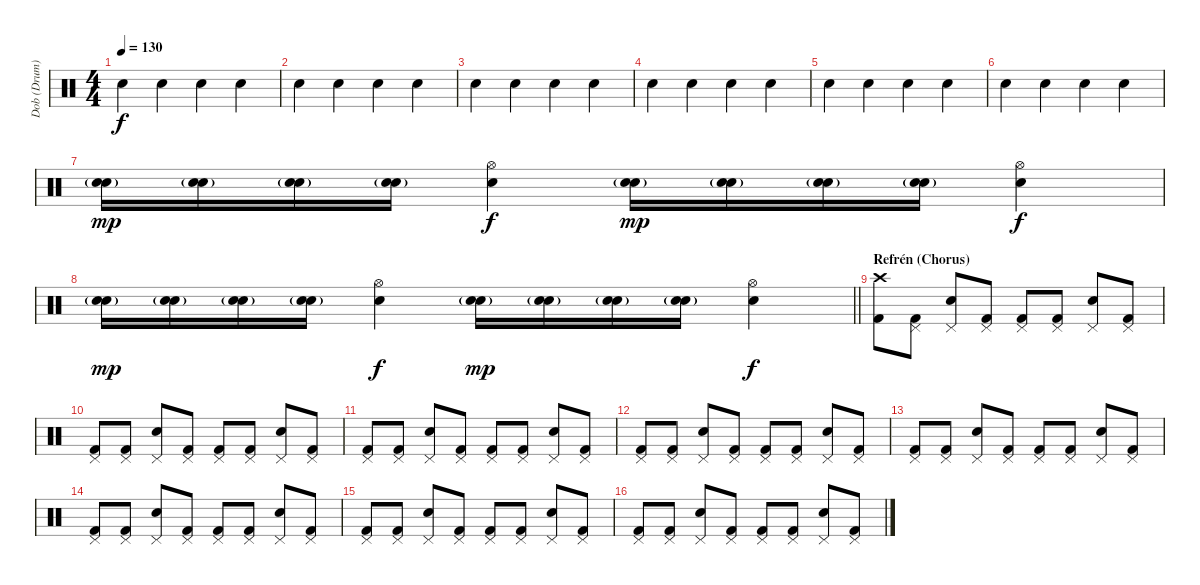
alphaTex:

\track ("Dob (Drum)" "Dob (Drum)") {instrument percussion}
\staff {score}
\articulation defaults
\ts (4 4)
\tempo 130
\clef neutral
\ks c "Snare (hit) 2".4{dy f} "Electric Snare (hit)".4 "Snare (hit) 2".4 "Electric Snare (hit)".4
|
"Snare (hit) 2".4 "Electric Snare (hit)".4 "Snare (hit) 2".4 "Electric Snare (hit)".4 |
"Snare (hit) 2".4 "Electric Snare (hit)".4 "Snare (hit) 2".4 "Electric Snare (hit)".4 |
"Snare (hit) 2".4 "Electric Snare (hit)".4 "Snare (hit) 2".4 "Electric Snare (hit)".4 |
"Snare (hit) 2".4 "Electric Snare (hit)".4 "Snare (hit) 2".4 "Electric Snare (hit)".4 |
"Snare (hit) 2".4 "Electric Snare (hit)".4 "Snare (hit) 2".4 "Electric Snare (hit)".4 |
("Electric Snare (hit)"{g} "Snare (hit) 2").16{dy mp} ("Electric Snare (hit)"{g} "Snare (hit) 2").16 ("Electric Snare (hit)"{g} "Snare (hit) 2").16 ("Electric Snare (hit)"{g} "Snare (hit) 2").16 ("Hi-Hat (open)" "Electric Snare (hit)").4{dy f} ("Electric Snare (hit)"{g} "Snare (hit) 2").16{dy mp} ("Electric Snare (hit)"{g} "Snare (hit) 2").16 ("Electric Snare (hit)"{g} "Snare (hit) 2").16 ("Electric Snare (hit)"{g} "Snare (hit) 2").16 ("Hi-Hat (open)" "Electric Snare (hit)").4{dy f} |
\barLineRight lightlight
("Electric Snare (hit)"{g} "Snare (hit) 2").16{dy mp} ("Electric Snare (hit)"{g} "Snare (hit) 2").16 ("Electric Snare (hit)"{g} "Snare (hit) 2").16 ("Electric Snare (hit)"{g} "Snare (hit) 2").16 ("Hi-Hat (open)" "Electric Snare (hit)").4{dy f} ("Electric Snare (hit)"{g} "Snare (hit) 2").16{dy mp} ("Electric Snare (hit)"{g} "Snare (hit) 2").16 ("Electric Snare (hit)"{g} "Snare (hit) 2").16 ("Electric Snare (hit)"{g} "Snare (hit) 2").16 ("Hi-Hat (open)" "Electric Snare (hit)").4{dy f} |
\section ("" "Refrén (Chorus)")
("Crash high (hit)" "Kick (hit) 2").8 ("Pedal Hi-Hat (hit)" "Kick (hit) 2").8 ("Pedal Hi-Hat (hit)" "Electric Snare (hit)").8 ("Pedal Hi-Hat (hit)" "Kick (hit) 2").8 ("Pedal Hi-Hat (hit)" "Kick (hit) 2").8 ("Pedal Hi-Hat (hit)" "Kick (hit) 2").8 ("Pedal Hi-Hat (hit)" "Electric Snare (hit)").8 ("Pedal Hi-Hat (hit)" "Kick (hit) 2").8 |
("Pedal Hi-Hat (hit)" "Kick (hit) 2").8 ("Pedal Hi-Hat (hit)" "Kick (hit) 2").8 ("Pedal Hi-Hat (hit)" "Electric Snare (hit)").8 ("Pedal Hi-Hat (hit)" "Kick (hit) 2").8 ("Pedal Hi-Hat (hit)" "Kick (hit) 2").8 ("Pedal Hi-Hat (hit)" "Kick (hit) 2").8 ("Pedal Hi-Hat (hit)" "Electric Snare (hit)").8 ("Pedal Hi-Hat (hit)" "Kick (hit) 2").8 |
("Pedal Hi-Hat (hit)" "Kick (hit) 2").8 ("Pedal Hi-Hat (hit)" "Kick (hit) 2").8 ("Pedal Hi-Hat (hit)" "Electric Snare (hit)").8 ("Pedal Hi-Hat (hit)" "Kick (hit) 2").8 ("Pedal Hi-Hat (hit)" "Kick (hit) 2").8 ("Pedal Hi-Hat (hit)" "Kick (hit) 2").8 ("Pedal Hi-Hat (hit)" "Electric Snare (hit)").8 ("Pedal Hi-Hat (hit)" "Kick (hit) 2").8 |
("Pedal Hi-Hat (hit)" "Kick (hit) 2").8 ("Pedal Hi-Hat (hit)" "Kick (hit) 2").8 ("Pedal Hi-Hat (hit)" "Electric Snare (hit)").8 ("Pedal Hi-Hat (hit)" "Kick (hit) 2").8 ("Pedal Hi-Hat (hit)" "Kick (hit) 2").8 ("Pedal Hi-Hat (hit)" "Kick (hit) 2").8 ("Pedal Hi-Hat (hit)" "Electric Snare (hit)").8 ("Pedal Hi-Hat (hit)" "Kick (hit) 2").8 |
("Pedal Hi-Hat (hit)" "Kick (hit) 2").8 ("Pedal Hi-Hat (hit)" "Kick (hit) 2").8 ("Pedal Hi-Hat (hit)" "Electric Snare (hit)").8 ("Pedal Hi-Hat (hit)" "Kick (hit) 2").8 ("Pedal Hi-Hat (hit)" "Kick (hit) 2").8 ("Pedal Hi-Hat (hit)" "Kick (hit) 2").8 ("Pedal Hi-Hat (hit)" "Electric Snare (hit)").8 ("Pedal Hi-Hat (hit)" "Kick (hit) 2").8 |
("Pedal Hi-Hat (hit)" "Kick (hit) 2").8 ("Pedal Hi-Hat (hit)" "Kick (hit) 2").8 ("Pedal Hi-Hat (hit)" "Electric Snare (hit)").8 ("Pedal Hi-Hat (hit)" "Kick (hit) 2").8 ("Pedal Hi-Hat (hit)" "Kick (hit) 2").8 ("Pedal Hi-Hat (hit)" "Kick (hit) 2").8 ("Pedal Hi-Hat (hit)" "Electric Snare (hit)").8 ("Pedal Hi-Hat (hit)" "Kick (hit) 2").8 |
("Pedal Hi-Hat (hit)" "Kick (hit) 2").8 ("Pedal Hi-Hat (hit)" "Kick (hit) 2").8 ("Pedal Hi-Hat (hit)" "Electric Snare (hit)").8 ("Pedal Hi-Hat (hit)" "Kick (hit) 2").8 ("Pedal Hi-Hat (hit)" "Kick (hit) 2").8 ("Pedal Hi-Hat (hit)" "Kick (hit) 2").8 ("Pedal Hi-Hat (hit)" "Electric Snare (hit)").8 ("Pedal Hi-Hat (hit)" "Kick (hit) 2").8 |
("Pedal Hi-Hat (hit)" "Kick (hit) 2").8 ("Pedal Hi-Hat (hit)" "Kick (hit) 2").8 ("Pedal Hi-Hat (hit)" "Electric Snare (hit)").8 ("Pedal Hi-Hat (hit)" "Kick (hit) 2").8 ("Pedal Hi-Hat (hit)" "Kick (hit) 2").8 ("Pedal Hi-Hat (hit)" "Kick (hit) 2").8 ("Pedal Hi-Hat (hit)" "Electric Snare (hit)").8 ("Pedal Hi-Hat (hit)" "Kick (hit) 2").8
